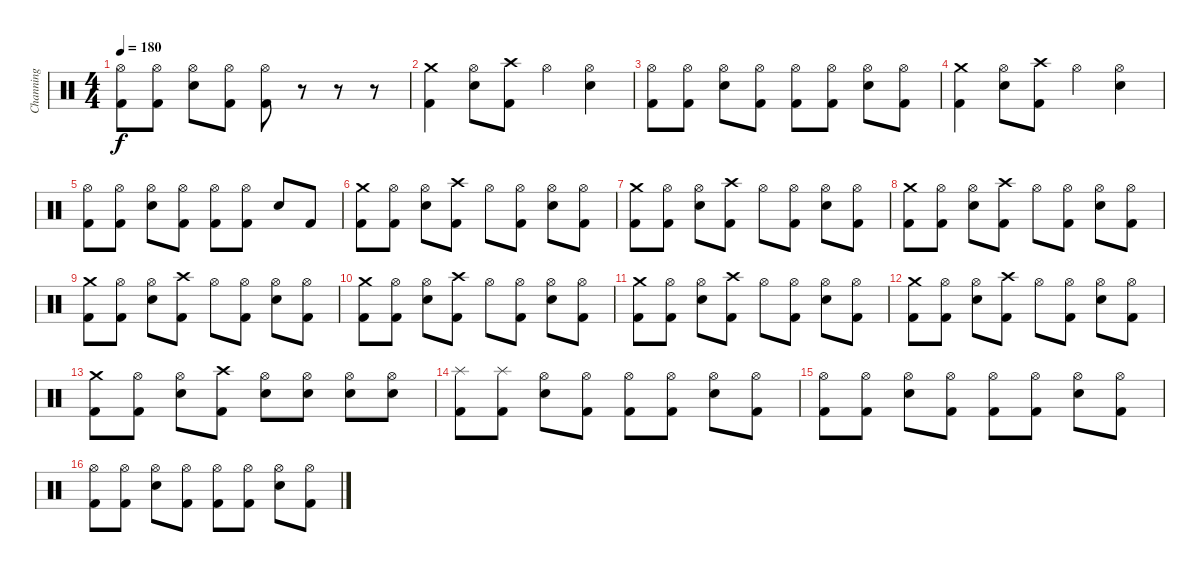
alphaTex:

\track ("Channing" "Channing") {instrument percussion}
\staff {score}
\articulation defaults
\ts (4 4)
\tempo 180
\clef neutral
\ks c
("Hi-Hat (open)" "Kick (hit) 2").8{dy f} ("Hi-Hat (open)" "Kick (hit) 2").8 ("Hi-Hat (open)" "Snare (hit) 2").8 ("Hi-Hat (open)" "Kick (hit) 2").8 ("Hi-Hat (open)" "Kick (hit) 2").8 r.8 r.8 r.8 |
("Crash medium (hit)" "Kick (hit) 2").4 ("Hi-Hat (open)" "Snare (hit) 2").8 ("Crash high (hit)" "Kick (hit) 2").8 "Hi-Hat (open)".4 ("Hi-Hat (open)" "Snare (hit) 2").4 |
("Hi-Hat (open)" "Kick (hit) 2").8 ("Hi-Hat (open)" "Kick (hit) 2").8 ("Hi-Hat (open)" "Snare (hit) 2").8 ("Hi-Hat (open)" "Kick (hit) 2").8 ("Hi-Hat (open)" "Kick (hit) 2").8 ("Hi-Hat (open)" "Kick (hit) 2").8 ("Hi-Hat (open)" "Snare (hit) 2").8 ("Hi-Hat (open)" "Kick (hit) 2").8 |
("Crash medium (hit)" "Kick (hit) 2").4 ("Hi-Hat (open)" "Snare (hit) 2").8 ("Crash high (hit)" "Kick (hit) 2").8 "Hi-Hat (open)".4 ("Hi-Hat (open)" "Snare (hit) 2").4 |
("Hi-Hat (open)" "Kick (hit) 2").8 ("Hi-Hat (open)" "Kick (hit) 2").8 ("Hi-Hat (open)" "Snare (hit) 2").8 ("Hi-Hat (open)" "Kick (hit) 2").8 ("Hi-Hat (open)" "Kick (hit) 2").8 ("Hi-Hat (open)" "Kick (hit) 2").8 "Snare (hit) 2".8 "Kick (hit) 2".8 |
("Crash medium (hit)" "Kick (hit) 2").8 ("Hi-Hat (open)" "Kick (hit) 2").8 ("Hi-Hat (open)" "Snare (hit) 2").8 ("Crash high (hit)" "Kick (hit) 2").8 "Hi-Hat (open)".8 ("Hi-Hat (open)" "Kick (hit) 2").8 ("Hi-Hat (open)" "Snare (hit) 2").8 ("Hi-Hat (open)" "Kick (hit) 2").8 |
("Crash medium (hit)" "Kick (hit) 2").8 ("Hi-Hat (open)" "Kick (hit) 2").8 ("Hi-Hat (open)" "Snare (hit) 2").8 ("Crash high (hit)" "Kick (hit) 2").8 "Hi-Hat (open)".8 ("Hi-Hat (open)" "Kick (hit) 2").8 ("Hi-Hat (open)" "Snare (hit) 2").8 ("Hi-Hat (open)" "Kick (hit) 2").8 |
("Crash medium (hit)" "Kick (hit) 2").8 ("Hi-Hat (open)" "Kick (hit) 2").8 ("Hi-Hat (open)" "Snare (hit) 2").8 ("Crash high (hit)" "Kick (hit) 2").8 "Hi-Hat (open)".8 ("Hi-Hat (open)" "Kick (hit) 2").8 ("Hi-Hat (open)" "Snare (hit) 2").8 ("Hi-Hat (open)" "Kick (hit) 2").8 |
("Crash medium (hit)" "Kick (hit) 2").8 ("Hi-Hat (open)" "Kick (hit) 2").8 ("Hi-Hat (open)" "Snare (hit) 2").8 ("Crash high (hit)" "Kick (hit) 2").8 "Hi-Hat (open)".8 ("Hi-Hat (open)" "Kick (hit) 2").8 ("Hi-Hat (open)" "Snare (hit) 2").8 ("Hi-Hat (open)" "Kick (hit) 2").8 |
("Crash medium (hit)" "Kick (hit) 2").8 ("Hi-Hat (open)" "Kick (hit) 2").8 ("Hi-Hat (open)" "Snare (hit) 2").8 ("Crash high (hit)" "Kick (hit) 2").8 "Hi-Hat (open)".8 ("Hi-Hat (open)" "Kick (hit) 2").8 ("Hi-Hat (open)" "Snare (hit) 2").8 ("Hi-Hat (open)" "Kick (hit) 2").8 |
("Crash medium (hit)" "Kick (hit) 2").8 ("Hi-Hat (open)" "Kick (hit) 2").8 ("Hi-Hat (open)" "Snare (hit) 2").8 ("Crash high (hit)" "Kick (hit) 2").8 "Hi-Hat (open)".8 ("Hi-Hat (open)" "Kick (hit) 2").8 ("Hi-Hat (open)" "Snare (hit) 2").8 ("Hi-Hat (open)" "Kick (hit) 2").8 |
("Crash medium (hit)" "Kick (hit) 2").8 ("Hi-Hat (open)" "Kick (hit) 2").8 ("Hi-Hat (open)" "Snare (hit) 2").8 ("Crash high (hit)" "Kick (hit) 2").8 "Hi-Hat (open)".8 ("Hi-Hat (open)" "Kick (hit) 2").8 ("Hi-Hat (open)" "Snare (hit) 2").8 ("Hi-Hat (open)" "Kick (hit) 2").8 |
("Crash medium (hit)" "Kick (hit) 2").8 ("Hi-Hat (open)" "Kick (hit) 2").8 ("Hi-Hat (open)" "Snare (hit) 2").8 ("Crash high (hit)" "Kick (hit) 2").8 ("Hi-Hat (open)" "Snare (hit) 2").8 ("Hi-Hat (open)" "Snare (hit) 2").8 ("Hi-Hat (open)" "Snare (hit) 2").8 ("Hi-Hat (open)" "Snare (hit) 2").8 |
("Splash (hit)" "Kick (hit) 2").8 ("Splash (hit)" "Kick (hit) 2").8 ("Hi-Hat (open)" "Snare (hit) 2").8 ("Hi-Hat (open)" "Kick (hit) 2").8 ("Hi-Hat (open)" "Kick (hit) 2").8 ("Hi-Hat (open)" "Kick (hit) 2").8 ("Hi-Hat (open)" "Snare (hit) 2").8 ("Hi-Hat (open)" "Kick (hit) 2").8 |
("Hi-Hat (open)" "Kick (hit) 2").8 ("Hi-Hat (open)" "Kick (hit) 2").8 ("Hi-Hat (open)" "Snare (hit) 2").8 ("Hi-Hat (open)" "Kick (hit) 2").8 ("Hi-Hat (open)" "Kick (hit) 2").8 ("Hi-Hat (open)" "Kick (hit) 2").8 ("Hi-Hat (open)" "Snare (hit) 2").8 ("Hi-Hat (open)" "Kick (hit) 2").8 |
("Hi-Hat (open)" "Kick (hit) 2").8 ("Hi-Hat (open)" "Kick (hit) 2").8 ("Hi-Hat (open)" "Snare (hit) 2").8 ("Hi-Hat (open)" "Kick (hit) 2").8 ("Hi-Hat (open)" "Kick (hit) 2").8 ("Hi-Hat (open)" "Kick (hit) 2").8 ("Hi-Hat (open)" "Snare (hit) 2").8 ("Hi-Hat (open)" "Kick (hit) 2").8
